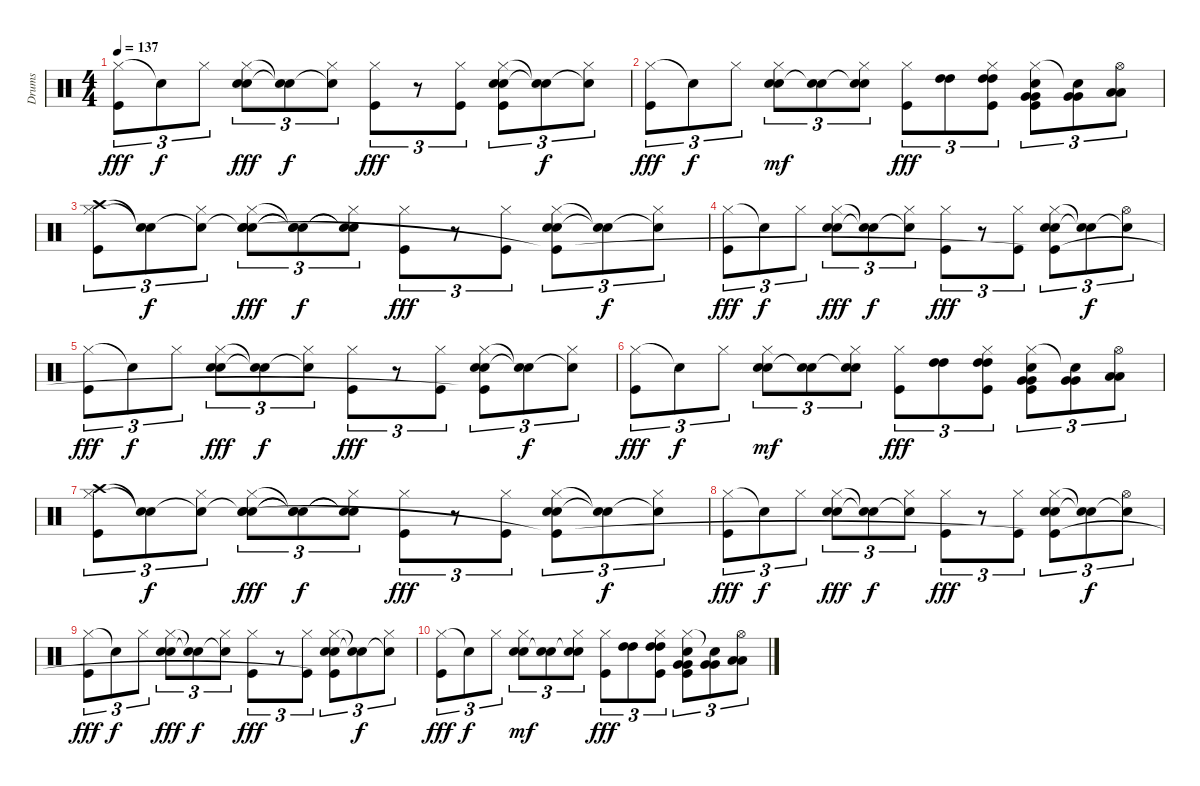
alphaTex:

\track ("Drums" "Drums") {instrument percussion}
\staff {score}
\articulation defaults
\ts (4 4)
\tempo 137
\clef neutral
\ks c
("Hi-Hat (closed)" "Kick (hit)").8{tu (3 2) dy fff} "Snare (hit)"{t}.8{tu (3 2) dy f} "Hi-Hat (closed)".8{tu (3 2)} ("Hand Clap (hit)" "Hi-Hat (closed)" "Electric Snare (hit)").8{tu (3 2) dy fff} ("Snare (hit)"{t} "Snare (hit)"{t}).8{tu (3 2) dy f} ("Snare (hit)"{t} "Hi-Hat (closed)").8{tu (3 2)} ("Hi-Hat (closed)" "Kick (hit)").8{tu (3 2) dy fff} r.8{tu (3 2)} ("Hi-Hat (closed)" "Kick (hit)").8{tu (3 2)} ("Hand Clap (hit)" "Hi-Hat (closed)" "Electric Snare (hit)" "Kick (hit)"{t}).8{tu (3 2)} ("Snare (hit)"{t} "Snare (hit)"{t}).8{tu (3 2) dy f} ("Snare (hit)"{t} "Hi-Hat (closed)").8{tu (3 2)} |
("Hi-Hat (closed)" "Kick (hit)").8{tu (3 2) dy fff} "Snare (hit)"{t}.8{tu (3 2) dy f} "Hi-Hat (closed)".8{tu (3 2)} ("Hand Clap (hit)" "Hi-Hat (closed)" "Electric Snare (hit)").8{tu (3 2) dy mf} ("Snare (hit)"{t} "Electric Snare (hit)").8{tu (3 2)} ("Snare (hit)"{t} "Hi-Hat (closed)" "Electric Snare (hit)").8{tu (3 2)} ("Hi-Hat (closed)" "Kick (hit)").8{tu (3 2) dy fff} ("High Tom (hit)" "High Tom (hit)").8{tu (3 2)} ("High Tom (hit)" "High Tom (hit)" "Hi-Hat (closed)" "Kick (hit)").8{tu (3 2)} ("Very Low Tom (hit)" "Very Low Tom (hit)" "Hi-Hat (closed)" "Electric Snare (hit)" "Kick (hit)").8{tu (3 2)} ("Very Low Tom (hit)" "Very Low Tom (hit)" "Snare (hit)"{t}).8{tu (3 2)} ("Low Floor Tom (hit)" "Low Floor Tom (hit)" "Hi-Hat (open)").8{tu (3 2)} |
("Crash high (hit)" "Hi-Hat (closed)" "Kick (hit)").8{tu (3 2)} ("Snare (hit)"{t} "Snare (hit)"{t}).8{tu (3 2) dy f} ("Snare (hit)"{t} "Hi-Hat (closed)").8{tu (3 2)} ("Snare (hit)"{t} "Hand Clap (hit)" "Hi-Hat (closed)" "Electric Snare (hit)").8{tu (3 2) dy fff} ("Snare (hit)"{t} "Snare (hit)"{t} "Snare (hit)"{t}).8{tu (3 2) dy f} ("Snare (hit)"{t} "Snare (hit)"{t} "Hi-Hat (closed)").8{tu (3 2)} ("Hi-Hat (closed)" "Kick (hit)").8{tu (3 2) dy fff} r.8{tu (3 2)} ("Hi-Hat (closed)" "Kick (hit)").8{tu (3 2)} ("Hand Clap (hit)" "Hi-Hat (closed)" "Electric Snare (hit)" "Kick (hit)"{t}).8{tu (3 2)} ("Snare (hit)"{t} "Snare (hit)"{t}).8{tu (3 2) dy f} ("Snare (hit)"{t} "Hi-Hat (closed)").8{tu (3 2)} |
("Hi-Hat (closed)" "Kick (hit)").8{tu (3 2) dy fff} "Snare (hit)"{t}.8{tu (3 2) dy f} "Hi-Hat (closed)".8{tu (3 2)} ("Hand Clap (hit)" "Hi-Hat (closed)" "Electric Snare (hit)").8{tu (3 2) dy fff} ("Snare (hit)"{t} "Snare (hit)"{t}).8{tu (3 2) dy f} ("Snare (hit)"{t} "Hi-Hat (closed)").8{tu (3 2)} ("Hi-Hat (closed)" "Kick (hit)").8{tu (3 2) dy fff} r.8{tu (3 2)} ("Hi-Hat (closed)" "Kick (hit)").8{tu (3 2)} ("Hand Clap (hit)" "Hi-Hat (closed)" "Electric Snare (hit)" "Kick (hit)"{t}).8{tu (3 2)} ("Snare (hit)"{t} "Snare (hit)"{t}).8{tu (3 2) dy f} ("Snare (hit)"{t} "Hi-Hat (open)").8{tu (3 2)} |
("Hi-Hat (closed)" "Kick (hit)").8{tu (3 2) dy fff} "Snare (hit)"{t}.8{tu (3 2) dy f} "Hi-Hat (closed)".8{tu (3 2)} ("Hand Clap (hit)" "Hi-Hat (closed)" "Electric Snare (hit)").8{tu (3 2) dy fff} ("Snare (hit)"{t} "Snare (hit)"{t}).8{tu (3 2) dy f} ("Snare (hit)"{t} "Hi-Hat (closed)").8{tu (3 2)} ("Hi-Hat (closed)" "Kick (hit)").8{tu (3 2) dy fff} r.8{tu (3 2)} ("Hi-Hat (closed)" "Kick (hit)").8{tu (3 2)} ("Hand Clap (hit)" "Hi-Hat (closed)" "Electric Snare (hit)" "Kick (hit)"{t}).8{tu (3 2)} ("Snare (hit)"{t} "Snare (hit)"{t}).8{tu (3 2) dy f} ("Snare (hit)"{t} "Hi-Hat (closed)").8{tu (3 2)} |
("Hi-Hat (closed)" "Kick (hit)").8{tu (3 2) dy fff} "Snare (hit)"{t}.8{tu (3 2) dy f} "Hi-Hat (closed)".8{tu (3 2)} ("Hand Clap (hit)" "Hi-Hat (closed)" "Electric Snare (hit)").8{tu (3 2) dy mf} ("Snare (hit)"{t} "Electric Snare (hit)").8{tu (3 2)} ("Snare (hit)"{t} "Hi-Hat (closed)" "Electric Snare (hit)").8{tu (3 2)} ("Hi-Hat (closed)" "Kick (hit)").8{tu (3 2) dy fff} ("High Tom (hit)" "High Tom (hit)").8{tu (3 2)} ("High Tom (hit)" "High Tom (hit)" "Hi-Hat (closed)" "Kick (hit)").8{tu (3 2)} ("Very Low Tom (hit)" "Very Low Tom (hit)" "Hi-Hat (closed)" "Electric Snare (hit)" "Kick (hit)").8{tu (3 2)} ("Very Low Tom (hit)" "Very Low Tom (hit)" "Snare (hit)"{t}).8{tu (3 2)} ("Low Floor Tom (hit)" "Low Floor Tom (hit)" "Hi-Hat (open)").8{tu (3 2)} |
("Crash high (hit)" "Hi-Hat (closed)" "Kick (hit)").8{tu (3 2)} ("Snare (hit)"{t} "Snare (hit)"{t}).8{tu (3 2) dy f} ("Snare (hit)"{t} "Hi-Hat (closed)").8{tu (3 2)} ("Snare (hit)"{t} "Hand Clap (hit)" "Hi-Hat (closed)" "Electric Snare (hit)").8{tu (3 2) dy fff} ("Snare (hit)"{t} "Snare (hit)"{t} "Snare (hit)"{t}).8{tu (3 2) dy f} ("Snare (hit)"{t} "Snare (hit)"{t} "Hi-Hat (closed)").8{tu (3 2)} ("Hi-Hat (closed)" "Kick (hit)").8{tu (3 2) dy fff} r.8{tu (3 2)} ("Hi-Hat (closed)" "Kick (hit)").8{tu (3 2)} ("Hand Clap (hit)" "Hi-Hat (closed)" "Electric Snare (hit)" "Kick (hit)"{t}).8{tu (3 2)} ("Snare (hit)"{t} "Snare (hit)"{t}).8{tu (3 2) dy f} ("Snare (hit)"{t} "Hi-Hat (closed)").8{tu (3 2)} |
("Hi-Hat (closed)" "Kick (hit)").8{tu (3 2) dy fff} "Snare (hit)"{t}.8{tu (3 2) dy f} "Hi-Hat (closed)".8{tu (3 2)} ("Hand Clap (hit)" "Hi-Hat (closed)" "Electric Snare (hit)").8{tu (3 2) dy fff} ("Snare (hit)"{t} "Snare (hit)"{t}).8{tu (3 2) dy f} ("Snare (hit)"{t} "Hi-Hat (closed)").8{tu (3 2)} ("Hi-Hat (closed)" "Kick (hit)").8{tu (3 2) dy fff} r.8{tu (3 2)} ("Hi-Hat (closed)" "Kick (hit)").8{tu (3 2)} ("Hand Clap (hit)" "Hi-Hat (closed)" "Electric Snare (hit)" "Kick (hit)"{t}).8{tu (3 2)} ("Snare (hit)"{t} "Snare (hit)"{t}).8{tu (3 2) dy f} ("Snare (hit)"{t} "Hi-Hat (open)").8{tu (3 2)} |
("Hi-Hat (closed)" "Kick (hit)").8{tu (3 2) dy fff} "Snare (hit)"{t}.8{tu (3 2) dy f} "Hi-Hat (closed)".8{tu (3 2)} ("Hand Clap (hit)" "Hi-Hat (closed)" "Electric Snare (hit)").8{tu (3 2) dy fff} ("Snare (hit)"{t} "Snare (hit)"{t}).8{tu (3 2) dy f} ("Snare (hit)"{t} "Hi-Hat (closed)").8{tu (3 2)} ("Hi-Hat (closed)" "Kick (hit)").8{tu (3 2) dy fff} r.8{tu (3 2)} ("Hi-Hat (closed)" "Kick (hit)").8{tu (3 2)} ("Hand Clap (hit)" "Hi-Hat (closed)" "Electric Snare (hit)" "Kick (hit)"{t}).8{tu (3 2)} ("Snare (hit)"{t} "Snare (hit)"{t}).8{tu (3 2) dy f} ("Snare (hit)"{t} "Hi-Hat (closed)").8{tu (3 2)} |
("Hi-Hat (closed)" "Kick (hit)").8{tu (3 2) dy fff} "Snare (hit)"{t}.8{tu (3 2) dy f} "Hi-Hat (closed)".8{tu (3 2)} ("Hand Clap (hit)" "Hi-Hat (closed)" "Electric Snare (hit)").8{tu (3 2) dy mf} ("Snare (hit)"{t} "Electric Snare (hit)").8{tu (3 2)} ("Snare (hit)"{t} "Hi-Hat (closed)" "Electric Snare (hit)").8{tu (3 2)} ("Hi-Hat (closed)" "Kick (hit)").8{tu (3 2) dy fff} ("High Tom (hit)" "High Tom (hit)").8{tu (3 2)} ("High Tom (hit)" "High Tom (hit)" "Hi-Hat (closed)" "Kick (hit)").8{tu (3 2)} ("Very Low Tom (hit)" "Very Low Tom (hit)" "Hi-Hat (closed)" "Electric Snare (hit)" "Kick (hit)").8{tu (3 2)} ("Very Low Tom (hit)" "Very Low Tom (hit)" "Snare (hit)"{t}).8{tu (3 2)} ("Low Floor Tom (hit)" "Low Floor Tom (hit)" "Hi-Hat (open)").8{tu (3 2)}
